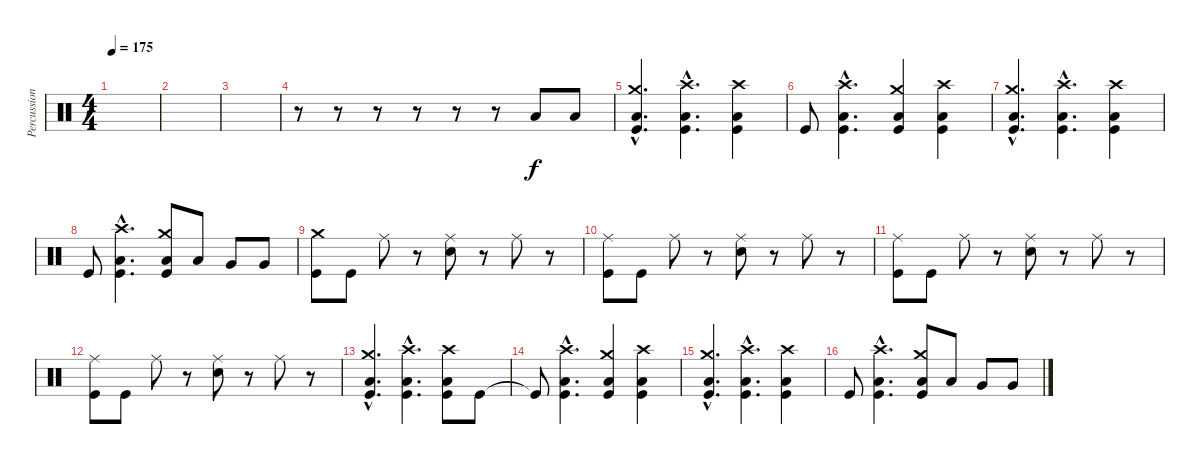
\track ("Percussions" "Percussion") {instrument percussion}
\staff {score}
\articulation defaults
\ts (4 4)
\tempo 175
\clef neutral
\ks c
|
|
|
r.8 r.8 r.8 r.8 r.8 r.8 "Low Tom (hit)".8 "Low Tom (hit)".8 |
("Crash medium (hit)"{hac} "Low Tom (hit)"{hac} "Kick (hit)"{hac}).4{d} ("Crash high (hit)"{hac} "Low Tom (hit)"{hac} "Kick (hit)"{hac}).4{d} ("Crash high (hit)" "Low Tom (hit)" "Kick (hit)").4 |
"Kick (hit)".8 ("Crash high (hit)"{hac} "Low Tom (hit)"{hac} "Kick (hit)"{hac}).4{d} ("Crash medium (hit)" "Low Tom (hit)" "Kick (hit)").4 ("Crash high (hit)" "Low Tom (hit)" "Kick (hit)").4 |
("Crash medium (hit)"{hac} "Low Tom (hit)"{hac} "Kick (hit)"{hac}).4{d} ("Crash high (hit)"{hac} "Low Tom (hit)"{hac} "Kick (hit)"{hac}).4{d} ("Crash high (hit)" "Low Tom (hit)" "Kick (hit)").4 |
"Kick (hit)".8 ("Crash high (hit)"{hac} "Low Tom (hit)"{hac} "Kick (hit)"{hac}).4{d} ("Crash medium (hit)" "Low Tom (hit)" "Kick (hit)").8 "Low Tom (hit)".8 "Very Low Tom (hit)".8 "Very Low Tom (hit)".8 |
("Crash medium (hit)" "Kick (hit)").8 "Kick (hit)".8 "Ride (middle)".8 r.8 ("Ride (middle)" "Snare (hit) 2").8 r.8 "Ride (middle)".8 r.8 |
("Ride (middle)" "Kick (hit)").8 "Kick (hit)".8 "Ride (middle)".8 r.8 ("Ride (middle)" "Snare (hit) 2").8 r.8 "Ride (middle)".8 r.8 |
("Ride (middle)" "Kick (hit)").8 "Kick (hit)".8 "Ride (middle)".8 r.8 ("Ride (middle)" "Snare (hit) 2").8 r.8 "Ride (middle)".8 r.8 |
("Ride (middle)" "Kick (hit)").8 "Kick (hit)".8 "Ride (middle)".8 r.8 ("Ride (middle)" "Snare (hit) 2").8 r.8 "Ride (middle)".8 r.8 |
("Crash medium (hit)"{hac} "Low Tom (hit)"{hac} "Kick (hit)"{hac}).4{d} ("Crash high (hit)"{hac} "Low Tom (hit)"{hac} "Kick (hit)"{hac}).4{d} ("Crash high (hit)" "Low Tom (hit)" "Kick (hit)").8 "Kick (hit)".8 |
"Kick (hit)"{t}.8 ("Crash high (hit)"{hac} "Low Tom (hit)"{hac} "Kick (hit)"{hac}).4{d} ("Crash medium (hit)" "Low Tom (hit)" "Kick (hit)").4 ("Crash high (hit)" "Low Tom (hit)" "Kick (hit)").4 |
("Crash medium (hit)"{hac} "Low Tom (hit)"{hac} "Kick (hit)"{hac}).4{d} ("Crash high (hit)"{hac} "Low Tom (hit)"{hac} "Kick (hit)"{hac}).4{d} ("Crash high (hit)" "Low Tom (hit)" "Kick (hit)").4 |
"Kick (hit)".8 ("Crash high (hit)"{hac} "Low Tom (hit)"{hac} "Kick (hit)"{hac}).4{d} ("Crash medium (hit)" "Low Tom (hit)" "Kick (hit)").8 "Low Tom (hit)".8 "Very Low Tom (hit)".8 "Very Low Tom (hit)".8
